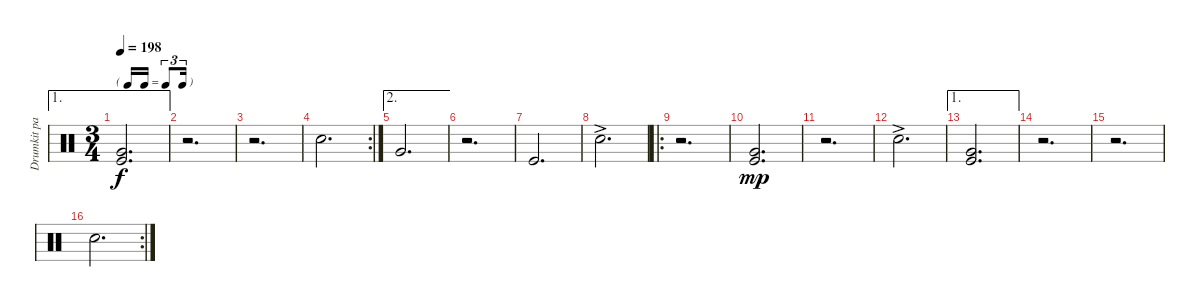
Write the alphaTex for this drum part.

\track ("Drumkit part 2" "Drumkit pa") {instrument percussion}
\staff {score}
\articulation defaults
\ae 1
\ts (3 4)
\tf triplet16th
\tempo 198
\clef neutral
\ks c
("Kick (hit)" "Very Low Tom (hit)").2{d dy f} |
r.2{d} |
r.2{d} |
\rc 2 "Snare (hit) 2".2{d}
|
\ae 2 "Very Low Tom (hit)".2{d}
|
r.2{d} |
"Kick (hit)".2{d} |
"Snare (hit) 2"{ac}.2{d} |
\ro
r.2{d} |
("Kick (hit)" "Very Low Tom (hit)").2{d dy mp} |
r.2{d} |
"Snare (hit) 2"{ac}.2{d} |
\ae 1
("Kick (hit)" "Very Low Tom (hit)").2{d} |
r.2{d} |
r.2{d} |
\rc 2 "Snare (hit) 2".2{d}
